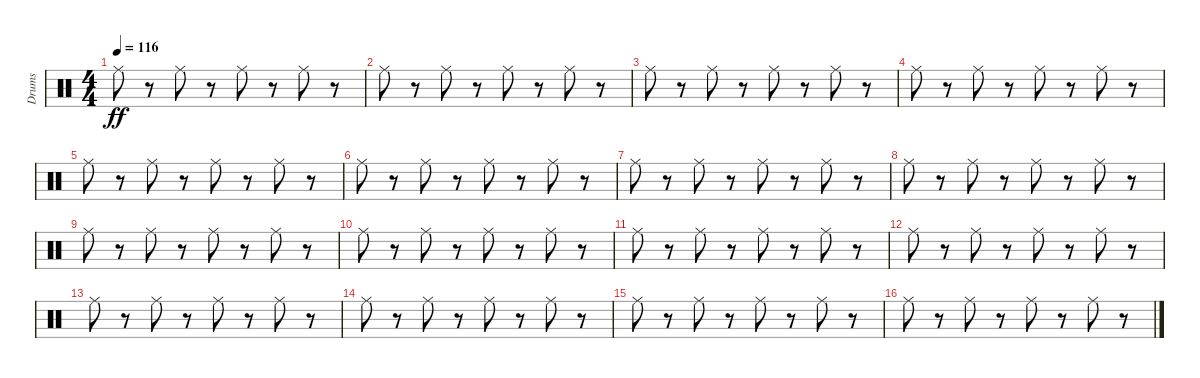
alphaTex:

\track ("Drums" "Drums") {instrument percussion}
\staff {score}
\articulation defaults
\ts (4 4)
\tempo 116
\clef neutral
\ks c "Ride (middle)".8{dy ff}
r.8 "Ride (middle)".8 r.8 "Ride (middle)".8 r.8 "Ride (middle)".8 r.8 |
"Ride (middle)".8 r.8 "Ride (middle)".8 r.8 "Ride (middle)".8 r.8 "Ride (middle)".8 r.8 |
"Ride (middle)".8 r.8 "Ride (middle)".8 r.8 "Ride (middle)".8 r.8 "Ride (middle)".8 r.8 |
"Ride (middle)".8 r.8 "Ride (middle)".8 r.8 "Ride (middle)".8 r.8 "Ride (middle)".8 r.8 |
"Ride (middle)".8 r.8 "Ride (middle)".8 r.8 "Ride (middle)".8 r.8 "Ride (middle)".8 r.8 |
"Ride (middle)".8 r.8 "Ride (middle)".8 r.8 "Ride (middle)".8 r.8 "Ride (middle)".8 r.8 |
"Ride (middle)".8 r.8 "Ride (middle)".8 r.8 "Ride (middle)".8 r.8 "Ride (middle)".8 r.8 |
"Ride (middle)".8 r.8 "Ride (middle)".8 r.8 "Ride (middle)".8 r.8 "Ride (middle)".8 r.8 |
"Ride (middle)".8 r.8 "Ride (middle)".8 r.8 "Ride (middle)".8 r.8 "Ride (middle)".8 r.8 |
"Ride (middle)".8 r.8 "Ride (middle)".8 r.8 "Ride (middle)".8 r.8 "Ride (middle)".8 r.8 |
"Ride (middle)".8 r.8 "Ride (middle)".8 r.8 "Ride (middle)".8 r.8 "Ride (middle)".8 r.8 |
"Ride (middle)".8 r.8 "Ride (middle)".8 r.8 "Ride (middle)".8 r.8 "Ride (middle)".8 r.8 |
"Ride (middle)".8 r.8 "Ride (middle)".8 r.8 "Ride (middle)".8 r.8 "Ride (middle)".8 r.8 |
"Ride (middle)".8 r.8 "Ride (middle)".8 r.8 "Ride (middle)".8 r.8 "Ride (middle)".8 r.8 |
"Ride (middle)".8 r.8 "Ride (middle)".8 r.8 "Ride (middle)".8 r.8 "Ride (middle)".8 r.8 |
"Ride (middle)".8 r.8 "Ride (middle)".8 r.8 "Ride (middle)".8 r.8 "Ride (middle)".8 r.8
